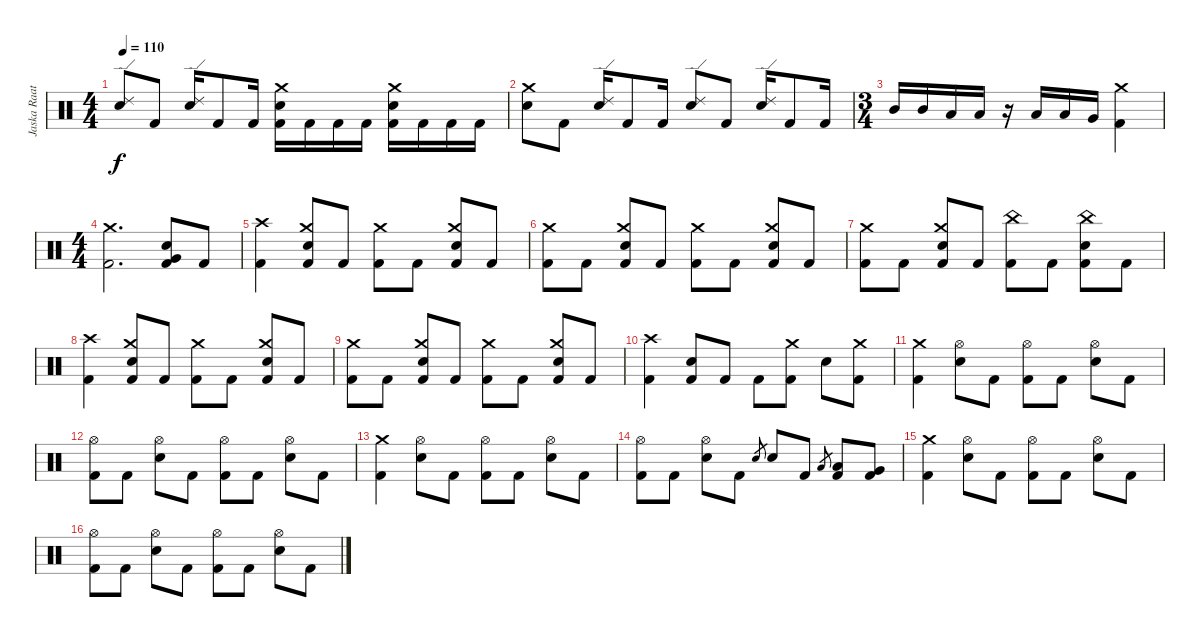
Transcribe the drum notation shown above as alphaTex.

\track ("Jaska Raatikainen" "Jaska Raat") {instrument percussion}
\staff {score}
\articulation defaults
\ts (4 4)
\tempo 110
\clef neutral
\ks c
("Electric Snare (hit)" "Ride (edge) 2").8{dy f} "Kick (hit) 2".8 ("Electric Snare (hit)" "Ride (edge) 2").16 "Kick (hit) 2".8 "Kick (hit) 2".16 ("Kick (hit) 2" "Crash medium (hit)" "Electric Snare (hit)").16 "Kick (hit) 2".16 "Kick (hit) 2".16 "Kick (hit) 2".16 ("Kick (hit) 2" "Crash medium (hit)" "Electric Snare (hit)").16 "Kick (hit) 2".16 "Kick (hit) 2".16 "Kick (hit) 2".16 |
("Electric Snare (hit)" "Crash medium (hit)").8 "Kick (hit) 2".8 ("Electric Snare (hit)" "Ride (edge) 2").16 "Kick (hit) 2".8 "Kick (hit) 2".16 ("Electric Snare (hit)" "Ride (edge) 2").8 "Kick (hit) 2".8 ("Electric Snare (hit)" "Ride (edge) 2").16 "Kick (hit) 2".8 "Kick (hit) 2".16 |
\ts (3 4)
"Mid Tom (hit)".16 "Mid Tom (hit)".16 "Low Tom (hit)".16 "Low Tom (hit)".16 r.16 "Low Tom (hit)".16 "Low Tom (hit)".16 "Very Low Tom (hit)".16 ("Kick (hit) 2" "Crash medium (hit)").4 |
\ts (4 4)
("Kick (hit) 2" "Crash medium (hit)").2{d} ("Kick (hit) 2" "Electric Snare (hit)" "Very Low Tom (hit)").8 "Kick (hit) 2".8 |
("Crash high (hit)" "Kick (hit) 2").4 ("Crash medium (hit)" "Snare (hit) 2" "Kick (hit) 2").8 "Kick (hit) 2".8 ("Crash medium (hit)" "Kick (hit) 2").8 "Kick (hit) 2".8 ("Crash medium (hit)" "Snare (hit) 2" "Kick (hit) 2").8 "Kick (hit) 2".8 |
("Crash medium (hit)" "Kick (hit) 2").8 "Kick (hit) 2".8 ("Crash medium (hit)" "Snare (hit) 2" "Kick (hit) 2").8 "Kick (hit) 2".8 ("Crash medium (hit)" "Kick (hit) 2").8 "Kick (hit) 2".8 ("Crash medium (hit)" "Snare (hit) 2" "Kick (hit) 2").8 "Kick (hit) 2".8 |
("Crash medium (hit)" "Kick (hit) 2").8 "Kick (hit) 2".8 ("Crash medium (hit)" "Snare (hit) 2" "Kick (hit) 2").8 "Kick (hit) 2".8 ("China (hit)" "Kick (hit) 2").8 "Kick (hit) 2".8 ("China (hit)" "Snare (hit) 2" "Kick (hit) 2").8 "Kick (hit) 2".8 |
("Crash high (hit)" "Kick (hit) 2").4 ("Crash medium (hit)" "Snare (hit) 2" "Kick (hit) 2").8 "Kick (hit) 2".8 ("Crash medium (hit)" "Kick (hit) 2").8 "Kick (hit) 2".8 ("Crash medium (hit)" "Snare (hit) 2" "Kick (hit) 2").8 "Kick (hit) 2".8 |
("Crash medium (hit)" "Kick (hit) 2").8 "Kick (hit) 2".8 ("Crash medium (hit)" "Snare (hit) 2" "Kick (hit) 2").8 "Kick (hit) 2".8 ("Crash medium (hit)" "Kick (hit) 2").8 "Kick (hit) 2".8 ("Crash medium (hit)" "Snare (hit) 2" "Kick (hit) 2").8 "Kick (hit) 2".8 |
("Crash high (hit)" "Kick (hit) 2").4 ("Snare (hit) 2" "Kick (hit) 2").8 "Kick (hit) 2".8 "Kick (hit) 2".8 ("Crash medium (hit)" "Kick (hit) 2").8 "Snare (hit) 2".8 ("Crash medium (hit)" "Kick (hit) 2").8 |
("Crash medium (hit)" "Kick (hit) 2").4 ("Electric Snare (hit)" "Hi-Hat (open)").8 "Kick (hit) 2".8 ("Kick (hit) 2" "Hi-Hat (open)").8 "Kick (hit) 2".8 ("Electric Snare (hit)" "Hi-Hat (open)").8 "Kick (hit) 2".8 |
("Hi-Hat (open)" "Kick (hit) 2").8 "Kick (hit) 2".8 ("Hi-Hat (open)" "Electric Snare (hit)").8 "Kick (hit) 2".8 ("Kick (hit) 2" "Hi-Hat (open)").8 "Kick (hit) 2".8 ("Electric Snare (hit)" "Hi-Hat (open)").8 "Kick (hit) 2".8 |
("Crash medium (hit)" "Kick (hit) 2").4 ("Electric Snare (hit)" "Hi-Hat (open)").8 "Kick (hit) 2".8 ("Kick (hit) 2" "Hi-Hat (open)").8 "Kick (hit) 2".8 ("Electric Snare (hit)" "Hi-Hat (open)").8 "Kick (hit) 2".8 |
("Kick (hit) 2" "Hi-Hat (open)").8 "Kick (hit) 2".8 ("Electric Snare (hit)" "Hi-Hat (open)").8 "Kick (hit) 2".8 "Electric Snare (hit)".8{gr} "Electric Snare (hit)".8 "Kick (hit) 2".8 "Low Tom (hit)".8{gr} ("Kick (hit) 2" "Low Tom (hit)").8 ("Kick (hit) 2" "Very Low Tom (hit)").8 |
("Crash medium (hit)" "Kick (hit) 2").4 ("Electric Snare (hit)" "Hi-Hat (open)").8 "Kick (hit) 2".8 ("Kick (hit) 2" "Hi-Hat (open)").8 "Kick (hit) 2".8 ("Electric Snare (hit)" "Hi-Hat (open)").8 "Kick (hit) 2".8 |
("Hi-Hat (open)" "Kick (hit) 2").8 "Kick (hit) 2".8 ("Hi-Hat (open)" "Electric Snare (hit)").8 "Kick (hit) 2".8 ("Kick (hit) 2" "Hi-Hat (open)").8 "Kick (hit) 2".8 ("Electric Snare (hit)" "Hi-Hat (open)").8 "Kick (hit) 2".8
